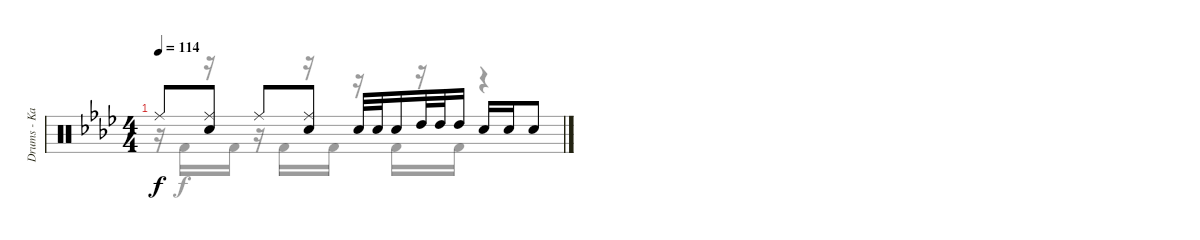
\track ("Drums - Kai" "Drums - Ka") {instrument percussion}
\staff {score}
\articulation defaults
\voice
\ts (4 4)
\tempo 114
\clef neutral
\ks ab "Ride (middle)".8{dy f}
("Ride (middle)" "Snare (hit) 2").8 "Ride (middle)".8 ("Ride (middle)" "Snare (hit) 2").8 "Snare (hit) 2".32 "Snare (hit) 2".32 "Snare (hit) 2".16 "High Tom (hit)".32 "High Tom (hit)".32 "High Tom (hit)".16 "Snare (hit) 2".16 "Snare (hit) 2".16 "Snare (hit) 2".8
\voice
\clef neutral
\ottava regular
\simile none
\ks ab
r.16{dy f} "Kick (hit) 2".16 r.16 "Kick (hit) 2".16 r.16 "Kick (hit) 2".16 r.16 "Kick (hit) 2".16 r.16 "Kick (hit) 2".16 r.16 "Kick (hit) 2".16 r.4
